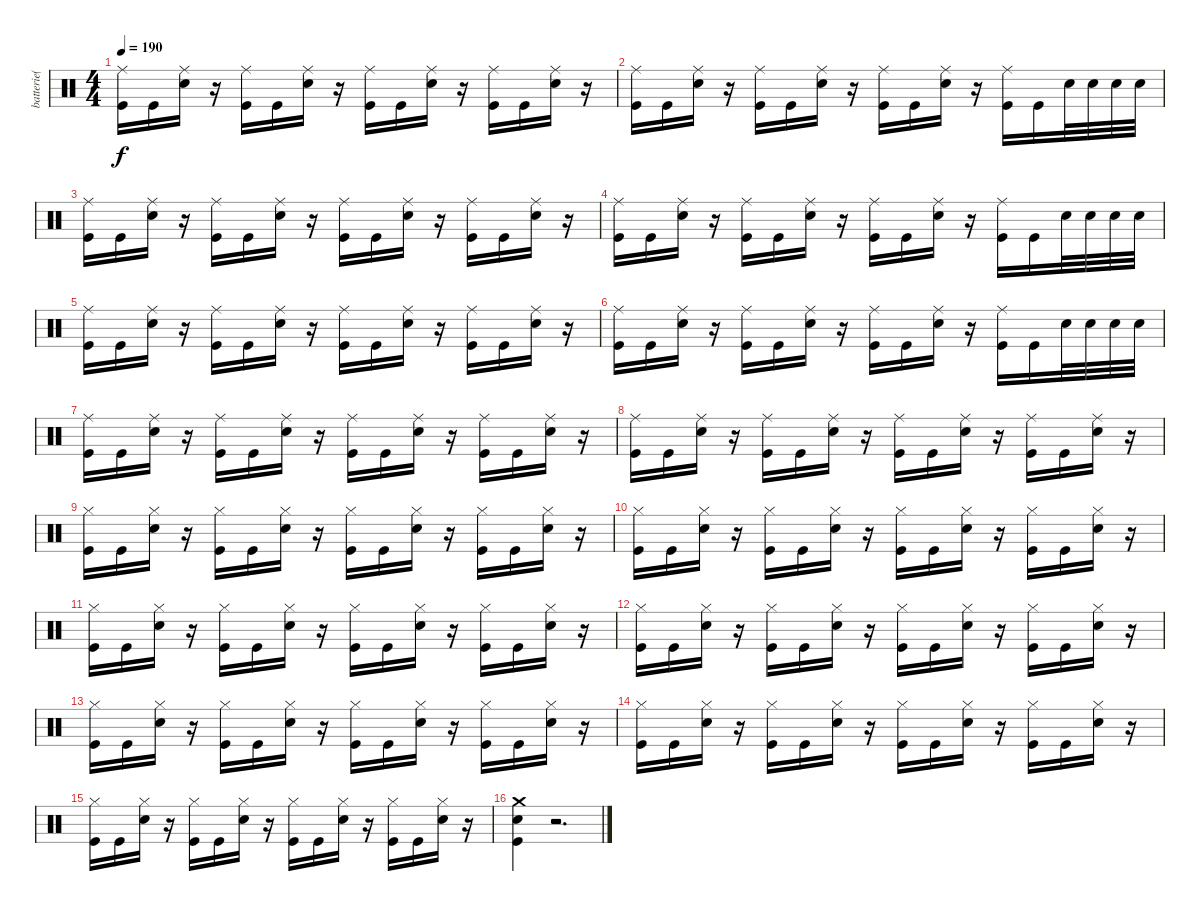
\track ("batterie( Rob )" "batterie( ") {instrument percussion}
\staff {score}
\articulation defaults
\ts (4 4)
\tempo 190
\clef neutral
\ks c
("Ride (middle)" "Kick (hit)").16{dy f} "Kick (hit)".16 ("Ride (middle)" "Snare (hit) 2").16 r.16 ("Ride (middle)" "Kick (hit)").16 "Kick (hit)".16 ("Ride (middle)" "Snare (hit) 2").16 r.16 ("Ride (middle)" "Kick (hit)").16 "Kick (hit)".16 ("Ride (middle)" "Snare (hit) 2").16 r.16 ("Ride (middle)" "Kick (hit)").16 "Kick (hit)".16 ("Ride (middle)" "Snare (hit) 2").16 r.16 |
("Ride (middle)" "Kick (hit)").16 "Kick (hit)".16 ("Ride (middle)" "Snare (hit) 2").16 r.16 ("Ride (middle)" "Kick (hit)").16 "Kick (hit)".16 ("Ride (middle)" "Snare (hit) 2").16 r.16 ("Ride (middle)" "Kick (hit)").16 "Kick (hit)".16 ("Ride (middle)" "Snare (hit) 2").16 r.16 ("Ride (middle)" "Kick (hit)").16 "Kick (hit)".16 "Snare (hit) 2".32 "Snare (hit) 2".32 "Snare (hit) 2".32 "Snare (hit) 2".32 |
("Ride (middle)" "Kick (hit)").16 "Kick (hit)".16 ("Ride (middle)" "Snare (hit) 2").16 r.16 ("Ride (middle)" "Kick (hit)").16 "Kick (hit)".16 ("Ride (middle)" "Snare (hit) 2").16 r.16 ("Ride (middle)" "Kick (hit)").16 "Kick (hit)".16 ("Ride (middle)" "Snare (hit) 2").16 r.16 ("Ride (middle)" "Kick (hit)").16 "Kick (hit)".16 ("Ride (middle)" "Snare (hit) 2").16 r.16 |
("Ride (middle)" "Kick (hit)").16 "Kick (hit)".16 ("Ride (middle)" "Snare (hit) 2").16 r.16 ("Ride (middle)" "Kick (hit)").16 "Kick (hit)".16 ("Ride (middle)" "Snare (hit) 2").16 r.16 ("Ride (middle)" "Kick (hit)").16 "Kick (hit)".16 ("Ride (middle)" "Snare (hit) 2").16 r.16 ("Ride (middle)" "Kick (hit)").16 "Kick (hit)".16 "Snare (hit) 2".32 "Snare (hit) 2".32 "Snare (hit) 2".32 "Snare (hit) 2".32 |
("Ride (middle)" "Kick (hit)").16 "Kick (hit)".16 ("Ride (middle)" "Snare (hit) 2").16 r.16 ("Ride (middle)" "Kick (hit)").16 "Kick (hit)".16 ("Ride (middle)" "Snare (hit) 2").16 r.16 ("Ride (middle)" "Kick (hit)").16 "Kick (hit)".16 ("Ride (middle)" "Snare (hit) 2").16 r.16 ("Ride (middle)" "Kick (hit)").16 "Kick (hit)".16 ("Ride (middle)" "Snare (hit) 2").16 r.16 |
("Ride (middle)" "Kick (hit)").16 "Kick (hit)".16 ("Ride (middle)" "Snare (hit) 2").16 r.16 ("Ride (middle)" "Kick (hit)").16 "Kick (hit)".16 ("Ride (middle)" "Snare (hit) 2").16 r.16 ("Ride (middle)" "Kick (hit)").16 "Kick (hit)".16 ("Ride (middle)" "Snare (hit) 2").16 r.16 ("Ride (middle)" "Kick (hit)").16 "Kick (hit)".16 "Snare (hit) 2".32 "Snare (hit) 2".32 "Snare (hit) 2".32 "Snare (hit) 2".32 |
("Ride (middle)" "Kick (hit)").16 "Kick (hit)".16 ("Ride (middle)" "Snare (hit) 2").16 r.16 ("Ride (middle)" "Kick (hit)").16 "Kick (hit)".16 ("Ride (middle)" "Snare (hit) 2").16 r.16 ("Ride (middle)" "Kick (hit)").16 "Kick (hit)".16 ("Ride (middle)" "Snare (hit) 2").16 r.16 ("Ride (middle)" "Kick (hit)").16 "Kick (hit)".16 ("Ride (middle)" "Snare (hit) 2").16 r.16 |
("Ride (middle)" "Kick (hit)").16 "Kick (hit)".16 ("Ride (middle)" "Snare (hit) 2").16 r.16 ("Ride (middle)" "Kick (hit)").16 "Kick (hit)".16 ("Ride (middle)" "Snare (hit) 2").16 r.16 ("Ride (middle)" "Kick (hit)").16 "Kick (hit)".16 ("Ride (middle)" "Snare (hit) 2").16 r.16 ("Ride (middle)" "Kick (hit)").16 "Kick (hit)".16 ("Ride (middle)" "Snare (hit) 2").16 r.16 |
("Hi-Hat (closed)" "Kick (hit)").16 "Kick (hit)".16 ("Hi-Hat (closed)" "Snare (hit) 2").16 r.16 ("Hi-Hat (closed)" "Kick (hit)").16 "Kick (hit)".16 ("Hi-Hat (closed)" "Snare (hit) 2").16 r.16 ("Hi-Hat (closed)" "Kick (hit)").16 "Kick (hit)".16 ("Hi-Hat (closed)" "Snare (hit) 2").16 r.16 ("Hi-Hat (closed)" "Kick (hit)").16 "Kick (hit)".16 ("Hi-Hat (closed)" "Snare (hit) 2").16 r.16 |
("Hi-Hat (closed)" "Kick (hit)").16 "Kick (hit)".16 ("Hi-Hat (closed)" "Snare (hit) 2").16 r.16 ("Hi-Hat (closed)" "Kick (hit)").16 "Kick (hit)".16 ("Hi-Hat (closed)" "Snare (hit) 2").16 r.16 ("Hi-Hat (closed)" "Kick (hit)").16 "Kick (hit)".16 ("Hi-Hat (closed)" "Snare (hit) 2").16 r.16 ("Hi-Hat (closed)" "Kick (hit)").16 "Kick (hit)".16 ("Hi-Hat (closed)" "Snare (hit) 2").16 r.16 |
("Hi-Hat (closed)" "Kick (hit)").16 "Kick (hit)".16 ("Hi-Hat (closed)" "Snare (hit) 2").16 r.16 ("Hi-Hat (closed)" "Kick (hit)").16 "Kick (hit)".16 ("Hi-Hat (closed)" "Snare (hit) 2").16 r.16 ("Hi-Hat (closed)" "Kick (hit)").16 "Kick (hit)".16 ("Hi-Hat (closed)" "Snare (hit) 2").16 r.16 ("Hi-Hat (closed)" "Kick (hit)").16 "Kick (hit)".16 ("Hi-Hat (closed)" "Snare (hit) 2").16 r.16 |
("Hi-Hat (closed)" "Kick (hit)").16 "Kick (hit)".16 ("Hi-Hat (closed)" "Snare (hit) 2").16 r.16 ("Hi-Hat (closed)" "Kick (hit)").16 "Kick (hit)".16 ("Hi-Hat (closed)" "Snare (hit) 2").16 r.16 ("Hi-Hat (closed)" "Kick (hit)").16 "Kick (hit)".16 ("Hi-Hat (closed)" "Snare (hit) 2").16 r.16 ("Hi-Hat (closed)" "Kick (hit)").16 "Kick (hit)".16 ("Hi-Hat (closed)" "Snare (hit) 2").16 r.16 |
("Hi-Hat (closed)" "Kick (hit)").16 "Kick (hit)".16 ("Hi-Hat (closed)" "Snare (hit) 2").16 r.16 ("Hi-Hat (closed)" "Kick (hit)").16 "Kick (hit)".16 ("Hi-Hat (closed)" "Snare (hit) 2").16 r.16 ("Hi-Hat (closed)" "Kick (hit)").16 "Kick (hit)".16 ("Hi-Hat (closed)" "Snare (hit) 2").16 r.16 ("Hi-Hat (closed)" "Kick (hit)").16 "Kick (hit)".16 ("Hi-Hat (closed)" "Snare (hit) 2").16 r.16 |
("Hi-Hat (closed)" "Kick (hit)").16 "Kick (hit)".16 ("Hi-Hat (closed)" "Snare (hit) 2").16 r.16 ("Hi-Hat (closed)" "Kick (hit)").16 "Kick (hit)".16 ("Hi-Hat (closed)" "Snare (hit) 2").16 r.16 ("Hi-Hat (closed)" "Kick (hit)").16 "Kick (hit)".16 ("Hi-Hat (closed)" "Snare (hit) 2").16 r.16 ("Hi-Hat (closed)" "Kick (hit)").16 "Kick (hit)".16 ("Hi-Hat (closed)" "Snare (hit) 2").16 r.16 |
("Hi-Hat (closed)" "Kick (hit)").16 "Kick (hit)".16 ("Hi-Hat (closed)" "Snare (hit) 2").16 r.16 ("Hi-Hat (closed)" "Kick (hit)").16 "Kick (hit)".16 ("Hi-Hat (closed)" "Snare (hit) 2").16 r.16 ("Hi-Hat (closed)" "Kick (hit)").16 "Kick (hit)".16 ("Hi-Hat (closed)" "Snare (hit) 2").16 r.16 ("Hi-Hat (closed)" "Kick (hit)").16 "Kick (hit)".16 ("Hi-Hat (closed)" "Snare (hit) 2").16 r.16 |
("Crash medium (hit)" "Snare (hit) 2" "Kick (hit)").4 r.2{d}
